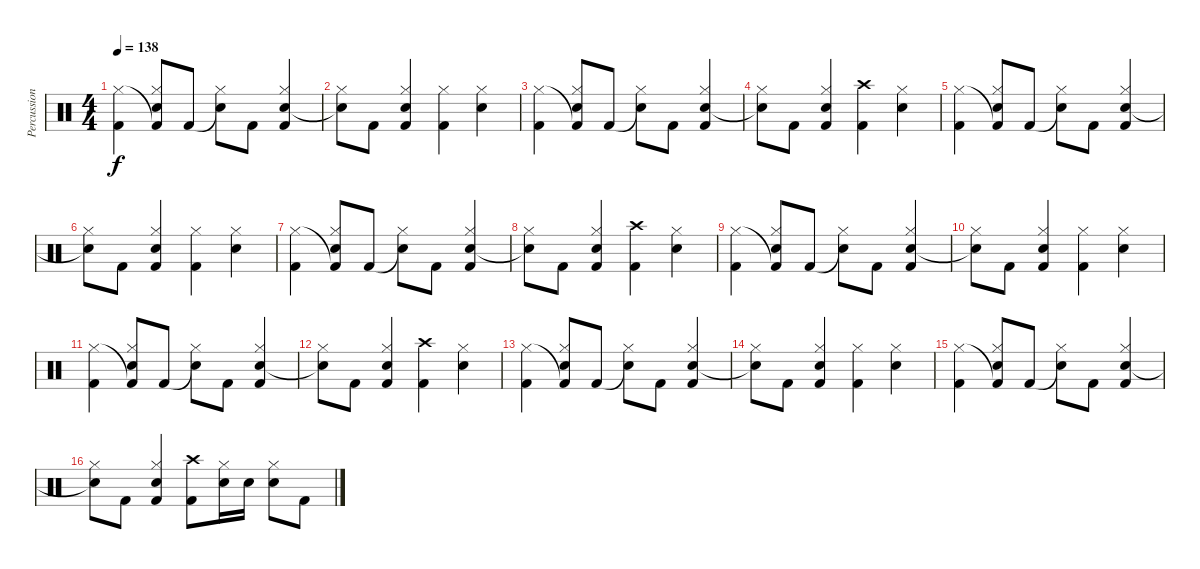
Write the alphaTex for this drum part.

\track ("Percussion" "Percussion") {instrument percussion}
\staff {score}
\articulation defaults
\ts (4 4)
\tempo 138
\clef neutral
\ks c
("Kick (hit) 2" "Hi-Hat (closed)").4{dy f} ("Snare (hit) 2" "Kick (hit) 2"{t} "Hi-Hat (closed)").8 "Kick (hit) 2".8 ("Snare (hit)"{t} "Hi-Hat (closed)").8 "Kick (hit) 2".8 ("Snare (hit) 2" "Kick (hit) 2" "Hi-Hat (closed)").4 |
("Snare (hit)"{t} "Hi-Hat (closed)").8 "Kick (hit) 2".8 ("Snare (hit) 2" "Kick (hit) 2" "Hi-Hat (closed)").4 ("Kick (hit) 2" "Hi-Hat (closed)").4 ("Snare (hit) 2" "Hi-Hat (closed)").4 |
("Kick (hit) 2" "Hi-Hat (closed)").4 ("Snare (hit) 2" "Kick (hit) 2"{t} "Hi-Hat (closed)").8 "Kick (hit) 2".8 ("Snare (hit)"{t} "Hi-Hat (closed)").8 "Kick (hit) 2".8 ("Snare (hit) 2" "Kick (hit) 2" "Hi-Hat (closed)").4 |
("Snare (hit)"{t} "Hi-Hat (closed)").8 "Kick (hit) 2".8 ("Snare (hit) 2" "Kick (hit) 2" "Hi-Hat (closed)").4 ("Kick (hit) 2" "Crash high (hit)").4 ("Snare (hit) 2" "Hi-Hat (closed)").4 |
("Kick (hit) 2" "Hi-Hat (closed)").4 ("Snare (hit) 2" "Kick (hit) 2"{t} "Hi-Hat (closed)").8 "Kick (hit) 2".8 ("Snare (hit)"{t} "Hi-Hat (closed)").8 "Kick (hit) 2".8 ("Snare (hit) 2" "Kick (hit) 2" "Hi-Hat (closed)").4 |
("Snare (hit)"{t} "Hi-Hat (closed)").8 "Kick (hit) 2".8 ("Snare (hit) 2" "Kick (hit) 2" "Hi-Hat (closed)").4 ("Kick (hit) 2" "Hi-Hat (closed)").4 ("Snare (hit) 2" "Hi-Hat (closed)").4 |
("Kick (hit) 2" "Hi-Hat (closed)").4 ("Snare (hit) 2" "Kick (hit) 2"{t} "Hi-Hat (closed)").8 "Kick (hit) 2".8 ("Snare (hit)"{t} "Hi-Hat (closed)").8 "Kick (hit) 2".8 ("Snare (hit) 2" "Kick (hit) 2" "Hi-Hat (closed)").4 |
("Snare (hit)"{t} "Hi-Hat (closed)").8 "Kick (hit) 2".8 ("Snare (hit) 2" "Kick (hit) 2" "Hi-Hat (closed)").4 ("Kick (hit) 2" "Crash high (hit)").4 ("Snare (hit) 2" "Hi-Hat (closed)").4 |
("Kick (hit) 2" "Hi-Hat (closed)").4 ("Snare (hit) 2" "Kick (hit) 2"{t} "Hi-Hat (closed)").8 "Kick (hit) 2".8 ("Snare (hit)"{t} "Hi-Hat (closed)").8 "Kick (hit) 2".8 ("Snare (hit) 2" "Kick (hit) 2" "Hi-Hat (closed)").4 |
("Snare (hit)"{t} "Hi-Hat (closed)").8 "Kick (hit) 2".8 ("Snare (hit) 2" "Kick (hit) 2" "Hi-Hat (closed)").4 ("Kick (hit) 2" "Hi-Hat (closed)").4 ("Snare (hit) 2" "Hi-Hat (closed)").4 |
("Kick (hit) 2" "Hi-Hat (closed)").4 ("Snare (hit) 2" "Kick (hit) 2"{t} "Hi-Hat (closed)").8 "Kick (hit) 2".8 ("Snare (hit)"{t} "Hi-Hat (closed)").8 "Kick (hit) 2".8 ("Snare (hit) 2" "Kick (hit) 2" "Hi-Hat (closed)").4 |
("Snare (hit)"{t} "Hi-Hat (closed)").8 "Kick (hit) 2".8 ("Snare (hit) 2" "Kick (hit) 2" "Hi-Hat (closed)").4 ("Kick (hit) 2" "Crash high (hit)").4 ("Snare (hit) 2" "Hi-Hat (closed)").4 |
("Kick (hit) 2" "Hi-Hat (closed)").4 ("Snare (hit) 2" "Kick (hit) 2"{t} "Hi-Hat (closed)").8 "Kick (hit) 2".8 ("Snare (hit)"{t} "Hi-Hat (closed)").8 "Kick (hit) 2".8 ("Snare (hit) 2" "Kick (hit) 2" "Hi-Hat (closed)").4 |
("Snare (hit)"{t} "Hi-Hat (closed)").8 "Kick (hit) 2".8 ("Snare (hit) 2" "Kick (hit) 2" "Hi-Hat (closed)").4 ("Kick (hit) 2" "Hi-Hat (closed)").4 ("Snare (hit) 2" "Hi-Hat (closed)").4 |
("Kick (hit) 2" "Hi-Hat (closed)").4 ("Snare (hit) 2" "Kick (hit) 2"{t} "Hi-Hat (closed)").8 "Kick (hit) 2".8 ("Snare (hit)"{t} "Hi-Hat (closed)").8 "Kick (hit) 2".8 ("Snare (hit) 2" "Kick (hit) 2" "Hi-Hat (closed)").4 |
("Snare (hit)"{t} "Hi-Hat (closed)").8 "Kick (hit) 2".8 ("Snare (hit) 2" "Kick (hit) 2" "Hi-Hat (closed)").4 ("Kick (hit) 2" "Crash high (hit)").8 ("Electric Snare (hit)" "Hi-Hat (closed)").16 "Electric Snare (hit)".16 ("Electric Snare (hit)" "Hi-Hat (closed)").8 "Kick (hit) 2".8
